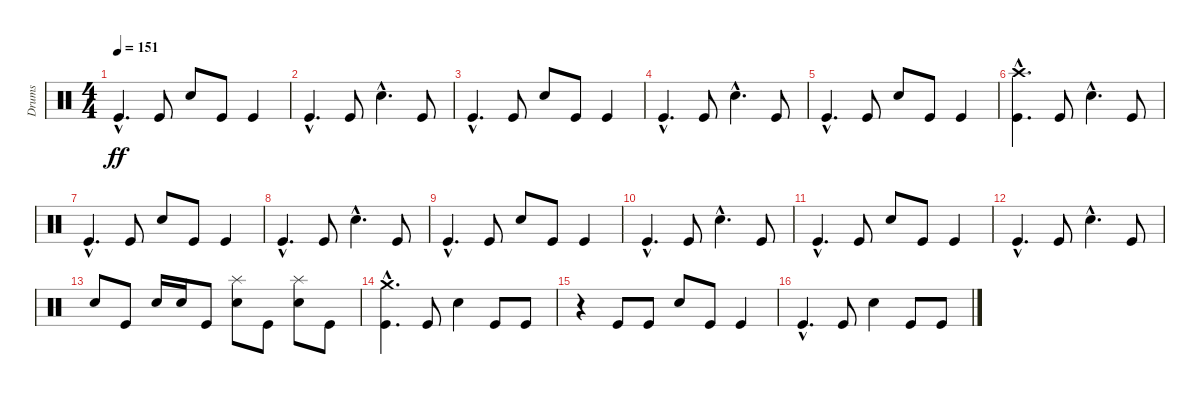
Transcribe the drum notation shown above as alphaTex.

\track ("Drums" "Drums") {instrument percussion}
\staff {score}
\articulation defaults
\ts (4 4)
\tempo 151
\clef neutral
\ks c "Kick (hit)"{hac}.4{d dy ff} "Kick (hit)".8 "Snare (hit) 2".8 "Kick (hit)".8 "Kick (hit)".4
|
"Kick (hit)"{hac}.4{d} "Kick (hit)".8 "Snare (hit) 2"{hac}.4{d} "Kick (hit)".8 |
"Kick (hit)"{hac}.4{d} "Kick (hit)".8 "Snare (hit) 2".8 "Kick (hit)".8 "Kick (hit)".4 |
"Kick (hit)"{hac}.4{d} "Kick (hit)".8 "Snare (hit) 2"{hac}.4{d} "Kick (hit)".8 |
"Kick (hit)"{hac}.4{d} "Kick (hit)".8 "Snare (hit) 2".8 "Kick (hit)".8 "Kick (hit)".4 |
("Crash high (hit)"{hac} "Kick (hit)"{hac}).4{d} "Kick (hit)".8 "Snare (hit) 2"{hac}.4{d} "Kick (hit)".8 |
"Kick (hit)"{hac}.4{d} "Kick (hit)".8 "Snare (hit) 2".8 "Kick (hit)".8 "Kick (hit)".4 |
"Kick (hit)"{hac}.4{d} "Kick (hit)".8 "Snare (hit) 2"{hac}.4{d} "Kick (hit)".8 |
"Kick (hit)"{hac}.4{d} "Kick (hit)".8 "Snare (hit) 2".8 "Kick (hit)".8 "Kick (hit)".4 |
"Kick (hit)"{hac}.4{d} "Kick (hit)".8 "Snare (hit) 2"{hac}.4{d} "Kick (hit)".8 |
"Kick (hit)"{hac}.4{d} "Kick (hit)".8 "Snare (hit) 2".8 "Kick (hit)".8 "Kick (hit)".4 |
"Kick (hit)"{hac}.4{d} "Kick (hit)".8 "Snare (hit) 2"{hac}.4{d} "Kick (hit)".8 |
"Snare (hit) 2".8 "Kick (hit)".8 "Snare (hit) 2".16 "Snare (hit) 2".16 "Kick (hit)".8 ("Splash (hit)" "Snare (hit) 2").8 "Kick (hit)".8 ("Splash (hit)" "Snare (hit) 2").8 "Kick (hit)".8 |
("Crash medium (hit)"{hac} "Kick (hit)"{hac}).4{d} "Kick (hit)".8 "Snare (hit) 2".4 "Kick (hit)".8 "Kick (hit)".8 |
r.4 "Kick (hit)".8 "Kick (hit)".8 "Snare (hit) 2".8 "Kick (hit)".8 "Kick (hit)".4 |
"Kick (hit)"{hac}.4{d} "Kick (hit)".8 "Snare (hit) 2".4 "Kick (hit)".8 "Kick (hit)".8
